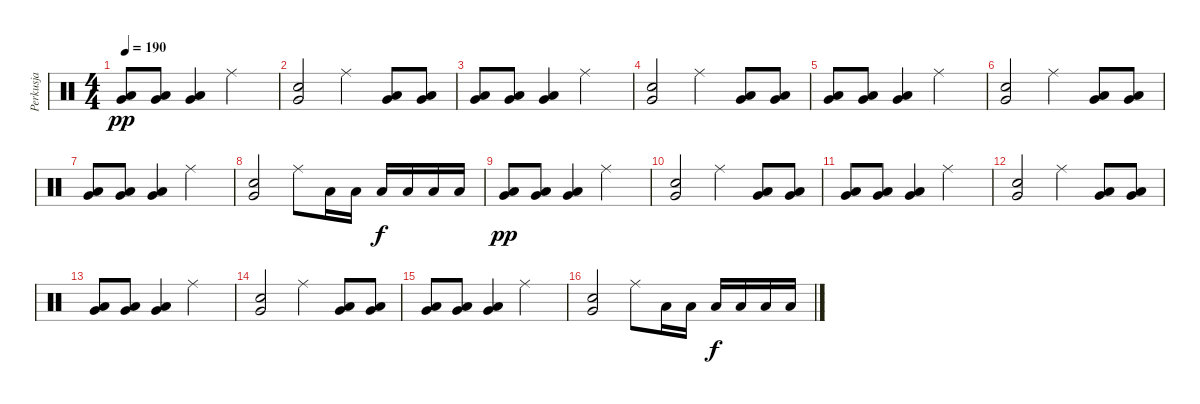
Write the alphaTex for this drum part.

\track ("Perkusja" "Perkusja") {instrument percussion}
\staff {score}
\articulation defaults
\ts (4 4)
\tempo 190
\clef neutral
\ks c
("Very Low Tom (hit)" "Low Floor Tom (hit)").8{dy pp} ("Very Low Tom (hit)" "Low Floor Tom (hit)").8 ("Very Low Tom (hit)" "Low Floor Tom (hit)").4 "Ride (middle)".2 |
("Snare (hit) 2" "Very Low Tom (hit)").2 "Ride (middle)".4 ("Very Low Tom (hit)" "Low Floor Tom (hit)").8 ("Very Low Tom (hit)" "Low Floor Tom (hit)").8 |
("Very Low Tom (hit)" "Low Floor Tom (hit)").8 ("Very Low Tom (hit)" "Low Floor Tom (hit)").8 ("Very Low Tom (hit)" "Low Floor Tom (hit)").4 "Ride (middle)".2 |
("Snare (hit) 2" "Very Low Tom (hit)").2 "Ride (middle)".4 ("Very Low Tom (hit)" "Low Floor Tom (hit)").8 ("Very Low Tom (hit)" "Low Floor Tom (hit)").8 |
("Very Low Tom (hit)" "Low Floor Tom (hit)").8 ("Very Low Tom (hit)" "Low Floor Tom (hit)").8 ("Very Low Tom (hit)" "Low Floor Tom (hit)").4 "Ride (middle)".2 |
("Snare (hit) 2" "Very Low Tom (hit)").2 "Ride (middle)".4 ("Very Low Tom (hit)" "Low Floor Tom (hit)").8 ("Very Low Tom (hit)" "Low Floor Tom (hit)").8 |
("Very Low Tom (hit)" "Low Floor Tom (hit)").8 ("Very Low Tom (hit)" "Low Floor Tom (hit)").8 ("Very Low Tom (hit)" "Low Floor Tom (hit)").4 "Ride (middle)".2 |
("Snare (hit) 2" "Very Low Tom (hit)").2 "Ride (middle)".8 "Low Floor Tom (hit)".16 "Low Floor Tom (hit)".16 "Low Floor Tom (hit)".16{dy f} "Low Floor Tom (hit)".16 "Low Floor Tom (hit)".16 "Low Floor Tom (hit)".16 |
("Very Low Tom (hit)" "Low Floor Tom (hit)").8{dy pp} ("Very Low Tom (hit)" "Low Floor Tom (hit)").8 ("Very Low Tom (hit)" "Low Floor Tom (hit)").4 "Ride (middle)".2 |
("Snare (hit) 2" "Very Low Tom (hit)").2 "Ride (middle)".4 ("Very Low Tom (hit)" "Low Floor Tom (hit)").8 ("Very Low Tom (hit)" "Low Floor Tom (hit)").8 |
("Very Low Tom (hit)" "Low Floor Tom (hit)").8 ("Very Low Tom (hit)" "Low Floor Tom (hit)").8 ("Very Low Tom (hit)" "Low Floor Tom (hit)").4 "Ride (middle)".2 |
("Snare (hit) 2" "Very Low Tom (hit)").2 "Ride (middle)".4 ("Very Low Tom (hit)" "Low Floor Tom (hit)").8 ("Very Low Tom (hit)" "Low Floor Tom (hit)").8 |
("Very Low Tom (hit)" "Low Floor Tom (hit)").8 ("Very Low Tom (hit)" "Low Floor Tom (hit)").8 ("Very Low Tom (hit)" "Low Floor Tom (hit)").4 "Ride (middle)".2 |
("Snare (hit) 2" "Very Low Tom (hit)").2 "Ride (middle)".4 ("Very Low Tom (hit)" "Low Floor Tom (hit)").8 ("Very Low Tom (hit)" "Low Floor Tom (hit)").8 |
("Very Low Tom (hit)" "Low Floor Tom (hit)").8 ("Very Low Tom (hit)" "Low Floor Tom (hit)").8 ("Very Low Tom (hit)" "Low Floor Tom (hit)").4 "Ride (middle)".2 |
("Snare (hit) 2" "Very Low Tom (hit)").2 "Ride (middle)".8 "Low Floor Tom (hit)".16 "Low Floor Tom (hit)".16 "Low Floor Tom (hit)".16{dy f} "Low Floor Tom (hit)".16 "Low Floor Tom (hit)".16 "Low Floor Tom (hit)".16
